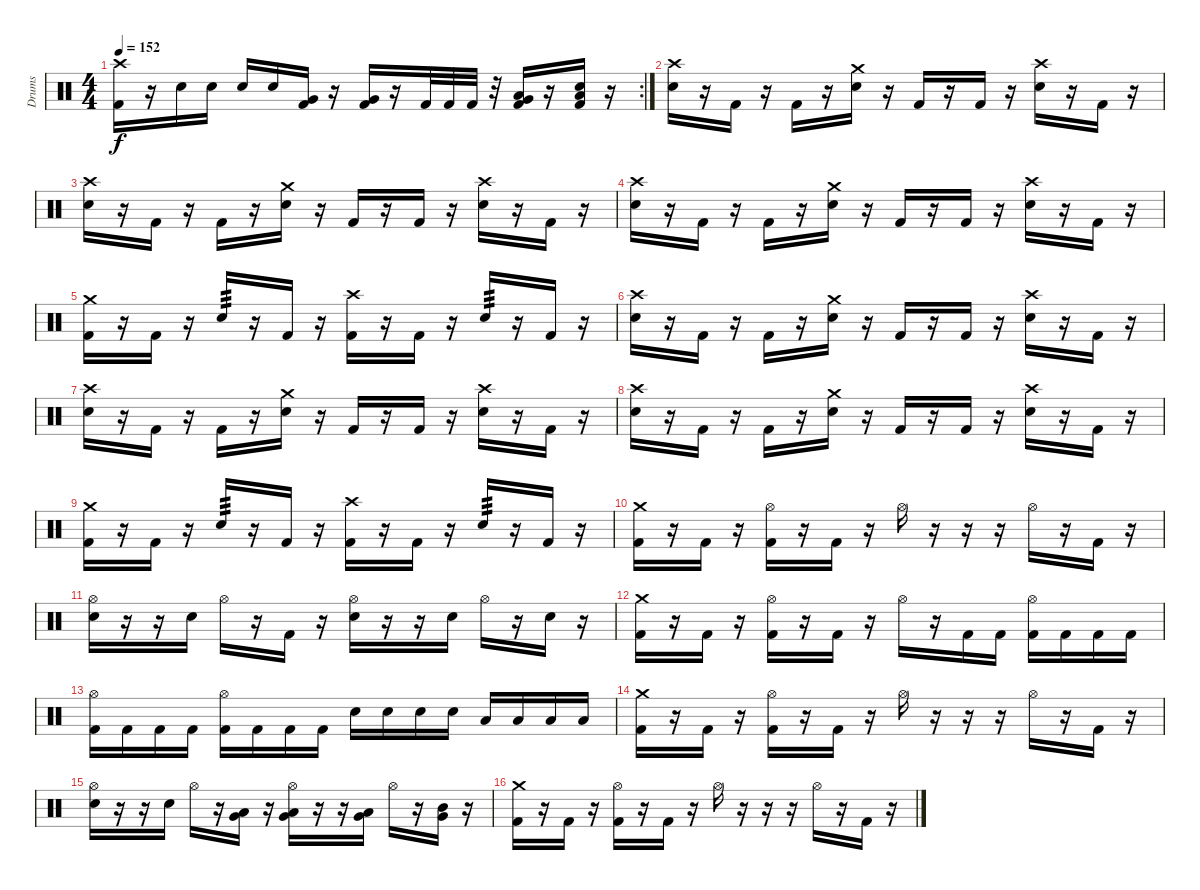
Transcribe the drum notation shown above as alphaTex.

\track ("Drums" "Drums") {instrument percussion}
\staff {score}
\articulation defaults
\rc 2
\ts (4 4)
\tempo 152
\clef neutral
\ks c
("Crash high (hit)" "Kick (hit) 2").16{dy f} r.16 "Snare (hit) 2".16 "Snare (hit) 2".16 "Snare (hit) 2".16 "Snare (hit) 2".16 ("Very Low Tom (hit)" "Kick (hit) 2").16 r.16 ("Very Low Tom (hit)" "Kick (hit) 2").16 r.16 "Kick (hit) 2".32 "Kick (hit) 2".32 "Kick (hit) 2".32 r.32 ("Very Low Tom (hit)" "Low Tom (hit)" "Kick (hit) 2").16 r.16 ("Snare (hit) 2" "Low Tom (hit)" "Kick (hit) 2").16 r.16 |
("Crash high (hit)" "Snare (hit) 2").16 r.16 "Kick (hit) 2".16 r.16 "Kick (hit) 2".16 r.16 ("Crash medium (hit)" "Snare (hit) 2").16 r.16 "Kick (hit) 2".16 r.16 "Kick (hit) 2".16 r.16 ("Crash high (hit)" "Snare (hit) 2").16 r.16 "Kick (hit) 2".16 r.16 |
("Crash high (hit)" "Snare (hit) 2").16 r.16 "Kick (hit) 2".16 r.16 "Kick (hit) 2".16 r.16 ("Crash medium (hit)" "Snare (hit) 2").16 r.16 "Kick (hit) 2".16 r.16 "Kick (hit) 2".16 r.16 ("Crash high (hit)" "Snare (hit) 2").16 r.16 "Kick (hit) 2".16 r.16 |
("Crash high (hit)" "Snare (hit) 2").16 r.16 "Kick (hit) 2".16 r.16 "Kick (hit) 2".16 r.16 ("Crash medium (hit)" "Snare (hit) 2").16 r.16 "Kick (hit) 2".16 r.16 "Kick (hit) 2".16 r.16 ("Crash high (hit)" "Snare (hit) 2").16 r.16 "Kick (hit) 2".16 r.16 |
("Crash medium (hit)" "Kick (hit) 2").16 r.16 "Kick (hit) 2".16 r.16 "Snare (hit) 2".16{tp 3} r.16 "Kick (hit) 2".16 r.16 ("Crash high (hit)" "Kick (hit) 2").16 r.16 "Kick (hit) 2".16 r.16 "Snare (hit) 2".16{tp 3} r.16 "Kick (hit) 2".16 r.16 |
("Crash high (hit)" "Snare (hit) 2").16 r.16 "Kick (hit) 2".16 r.16 "Kick (hit) 2".16 r.16 ("Crash medium (hit)" "Snare (hit) 2").16 r.16 "Kick (hit) 2".16 r.16 "Kick (hit) 2".16 r.16 ("Crash high (hit)" "Snare (hit) 2").16 r.16 "Kick (hit) 2".16 r.16 |
("Crash high (hit)" "Snare (hit) 2").16 r.16 "Kick (hit) 2".16 r.16 "Kick (hit) 2".16 r.16 ("Crash medium (hit)" "Snare (hit) 2").16 r.16 "Kick (hit) 2".16 r.16 "Kick (hit) 2".16 r.16 ("Crash high (hit)" "Snare (hit) 2").16 r.16 "Kick (hit) 2".16 r.16 |
("Crash high (hit)" "Snare (hit) 2").16 r.16 "Kick (hit) 2".16 r.16 "Kick (hit) 2".16 r.16 ("Crash medium (hit)" "Snare (hit) 2").16 r.16 "Kick (hit) 2".16 r.16 "Kick (hit) 2".16 r.16 ("Crash high (hit)" "Snare (hit) 2").16 r.16 "Kick (hit) 2".16 r.16 |
("Crash medium (hit)" "Kick (hit) 2").16 r.16 "Kick (hit) 2".16 r.16 "Snare (hit) 2".16{tp 3} r.16 "Kick (hit) 2".16 r.16 ("Crash high (hit)" "Kick (hit) 2").16 r.16 "Kick (hit) 2".16 r.16 "Snare (hit) 2".16{tp 3} r.16 "Kick (hit) 2".16 r.16 |
("Crash medium (hit)" "Kick (hit) 2").16 r.16 "Kick (hit) 2".16 r.16 ("Hi-Hat (open)" "Kick (hit) 2").16 r.16 "Kick (hit) 2".16 r.16 "Hi-Hat (open)".16 r.16 r.16 r.16 "Hi-Hat (open)".16 r.16 "Kick (hit) 2".16 r.16 |
("Hi-Hat (open)" "Snare (hit) 2").16 r.16 r.16 "Snare (hit) 2".16 "Hi-Hat (open)".16 r.16 "Kick (hit) 2".16 r.16 ("Hi-Hat (open)" "Snare (hit) 2").16 r.16 r.16 "Snare (hit) 2".16 "Hi-Hat (open)".16 r.16 "Snare (hit) 2".16 r.16 |
("Crash medium (hit)" "Kick (hit) 2").16 r.16 "Kick (hit) 2".16 r.16 ("Hi-Hat (open)" "Kick (hit) 2").16 r.16 "Kick (hit) 2".16 r.16 "Hi-Hat (open)".16 r.16 "Kick (hit) 2".16 "Kick (hit) 2".16 ("Hi-Hat (open)" "Kick (hit) 2").16 "Kick (hit) 2".16 "Kick (hit) 2".16 "Kick (hit) 2".16 |
("Hi-Hat (open)" "Kick (hit) 2").16 "Kick (hit) 2".16 "Kick (hit) 2".16 "Kick (hit) 2".16 ("Hi-Hat (open)" "Kick (hit) 2").16 "Kick (hit) 2".16 "Kick (hit) 2".16 "Kick (hit) 2".16 "Snare (hit) 2".16 "Snare (hit) 2".16 "Snare (hit) 2".16 "Snare (hit) 2".16 "Low Tom (hit)".16 "Low Tom (hit)".16 "Low Tom (hit)".16 "Low Tom (hit)".16 |
("Crash medium (hit)" "Kick (hit) 2").16 r.16 "Kick (hit) 2".16 r.16 ("Hi-Hat (open)" "Kick (hit) 2").16 r.16 "Kick (hit) 2".16 r.16 "Hi-Hat (open)".16 r.16 r.16 r.16 "Hi-Hat (open)".16 r.16 "Kick (hit) 2".16 r.16 |
("Hi-Hat (open)" "Snare (hit) 2").16 r.16 r.16 "Snare (hit) 2".16 "Hi-Hat (open)".16 r.16 ("Low Tom (hit)" "Very Low Tom (hit)").16 r.16 ("Hi-Hat (open)" "Low Tom (hit)" "Very Low Tom (hit)").16 r.16 r.16 ("Low Tom (hit)" "Very Low Tom (hit)").16 "Hi-Hat (open)".16 r.16 ("Mid Tom (hit)" "Very Low Tom (hit)").16 r.16 |
("Crash medium (hit)" "Kick (hit) 2").16 r.16 "Kick (hit) 2".16 r.16 ("Hi-Hat (open)" "Kick (hit) 2").16 r.16 "Kick (hit) 2".16 r.16 "Hi-Hat (open)".16 r.16 r.16 r.16 "Hi-Hat (open)".16 r.16 "Kick (hit) 2".16 r.16
